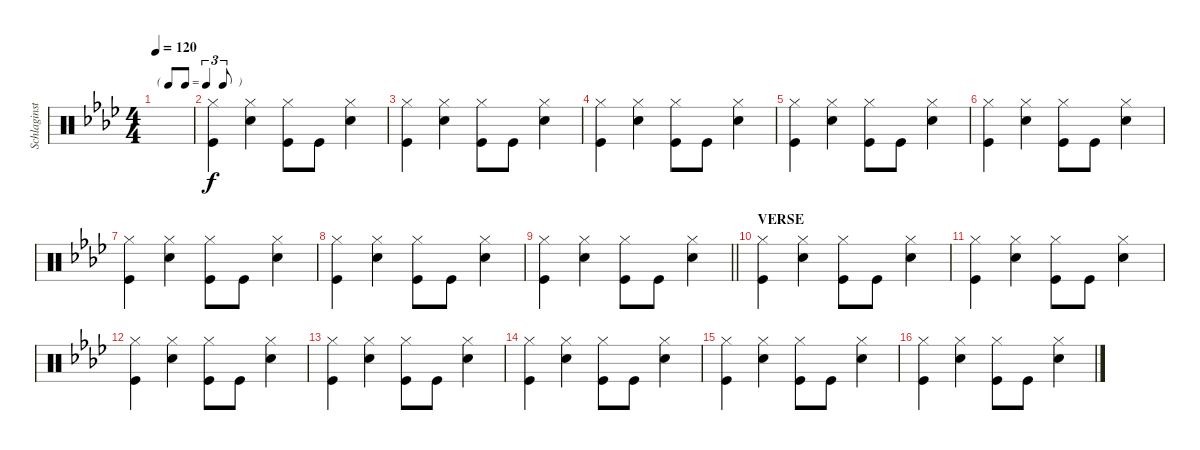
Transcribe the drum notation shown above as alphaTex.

\track ("Schlaginstrumente - Auswahl" "Schlaginst") {instrument percussion}
\staff {score}
\articulation defaults
\ts (4 4)
\tf triplet8th
\tempo 120
\clef neutral
\ks ab
|
("Hi-Hat (closed)" "Kick (hit)").4 ("Hi-Hat (closed)" "Snare (hit) 2").4 ("Hi-Hat (closed)" "Kick (hit)").8 "Kick (hit)".8 ("Hi-Hat (closed)" "Snare (hit) 2").4 |
("Hi-Hat (closed)" "Kick (hit)").4 ("Hi-Hat (closed)" "Snare (hit) 2").4 ("Hi-Hat (closed)" "Kick (hit)").8 "Kick (hit)".8 ("Hi-Hat (closed)" "Snare (hit) 2").4 |
("Hi-Hat (closed)" "Kick (hit)").4 ("Hi-Hat (closed)" "Snare (hit) 2").4 ("Hi-Hat (closed)" "Kick (hit)").8 "Kick (hit)".8 ("Hi-Hat (closed)" "Snare (hit) 2").4 |
("Hi-Hat (closed)" "Kick (hit)").4 ("Hi-Hat (closed)" "Snare (hit) 2").4 ("Hi-Hat (closed)" "Kick (hit)").8 "Kick (hit)".8 ("Hi-Hat (closed)" "Snare (hit) 2").4 |
("Hi-Hat (closed)" "Kick (hit)").4 ("Hi-Hat (closed)" "Snare (hit) 2").4 ("Hi-Hat (closed)" "Kick (hit)").8 "Kick (hit)".8 ("Hi-Hat (closed)" "Snare (hit) 2").4 |
("Hi-Hat (closed)" "Kick (hit)").4 ("Hi-Hat (closed)" "Snare (hit) 2").4 ("Hi-Hat (closed)" "Kick (hit)").8 "Kick (hit)".8 ("Hi-Hat (closed)" "Snare (hit) 2").4 |
("Hi-Hat (closed)" "Kick (hit)").4 ("Hi-Hat (closed)" "Snare (hit) 2").4 ("Hi-Hat (closed)" "Kick (hit)").8 "Kick (hit)".8 ("Hi-Hat (closed)" "Snare (hit) 2").4 |
\barLineRight lightlight
("Hi-Hat (closed)" "Kick (hit)").4 ("Hi-Hat (closed)" "Snare (hit) 2").4 ("Hi-Hat (closed)" "Kick (hit)").8 "Kick (hit)".8 ("Hi-Hat (closed)" "Snare (hit) 2").4 |
\section ("" "VERSE")
("Hi-Hat (closed)" "Kick (hit)").4 ("Hi-Hat (closed)" "Snare (hit) 2").4 ("Hi-Hat (closed)" "Kick (hit)").8 "Kick (hit)".8 ("Hi-Hat (closed)" "Snare (hit) 2").4 |
("Hi-Hat (closed)" "Kick (hit)").4 ("Hi-Hat (closed)" "Snare (hit) 2").4 ("Hi-Hat (closed)" "Kick (hit)").8 "Kick (hit)".8 ("Hi-Hat (closed)" "Snare (hit) 2").4 |
("Hi-Hat (closed)" "Kick (hit)").4 ("Hi-Hat (closed)" "Snare (hit) 2").4 ("Hi-Hat (closed)" "Kick (hit)").8 "Kick (hit)".8 ("Hi-Hat (closed)" "Snare (hit) 2").4 |
("Hi-Hat (closed)" "Kick (hit)").4 ("Hi-Hat (closed)" "Snare (hit) 2").4 ("Hi-Hat (closed)" "Kick (hit)").8 "Kick (hit)".8 ("Hi-Hat (closed)" "Snare (hit) 2").4 |
("Hi-Hat (closed)" "Kick (hit)").4 ("Hi-Hat (closed)" "Snare (hit) 2").4 ("Hi-Hat (closed)" "Kick (hit)").8 "Kick (hit)".8 ("Hi-Hat (closed)" "Snare (hit) 2").4 |
("Hi-Hat (closed)" "Kick (hit)").4 ("Hi-Hat (closed)" "Snare (hit) 2").4 ("Hi-Hat (closed)" "Kick (hit)").8 "Kick (hit)".8 ("Hi-Hat (closed)" "Snare (hit) 2").4 |
("Hi-Hat (closed)" "Kick (hit)").4 ("Hi-Hat (closed)" "Snare (hit) 2").4 ("Hi-Hat (closed)" "Kick (hit)").8 "Kick (hit)".8 ("Hi-Hat (closed)" "Snare (hit) 2").4
